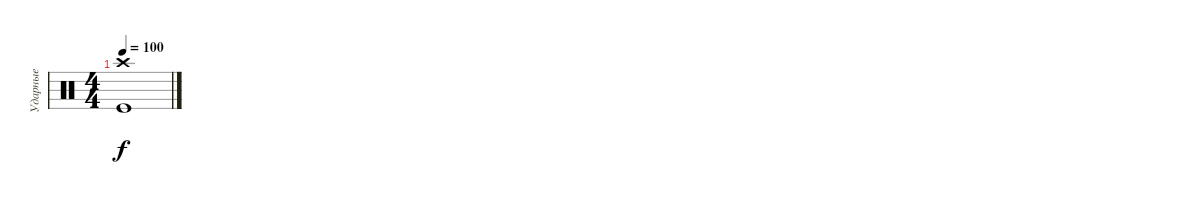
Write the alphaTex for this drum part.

\track ("Ударные" "Ударные") {instrument percussion}
\staff {score}
\articulation defaults
\ts (4 4)
\tempo 100
\clef neutral
\ks c
("Crash high (hit)" "Kick (hit)").1{dy f}
